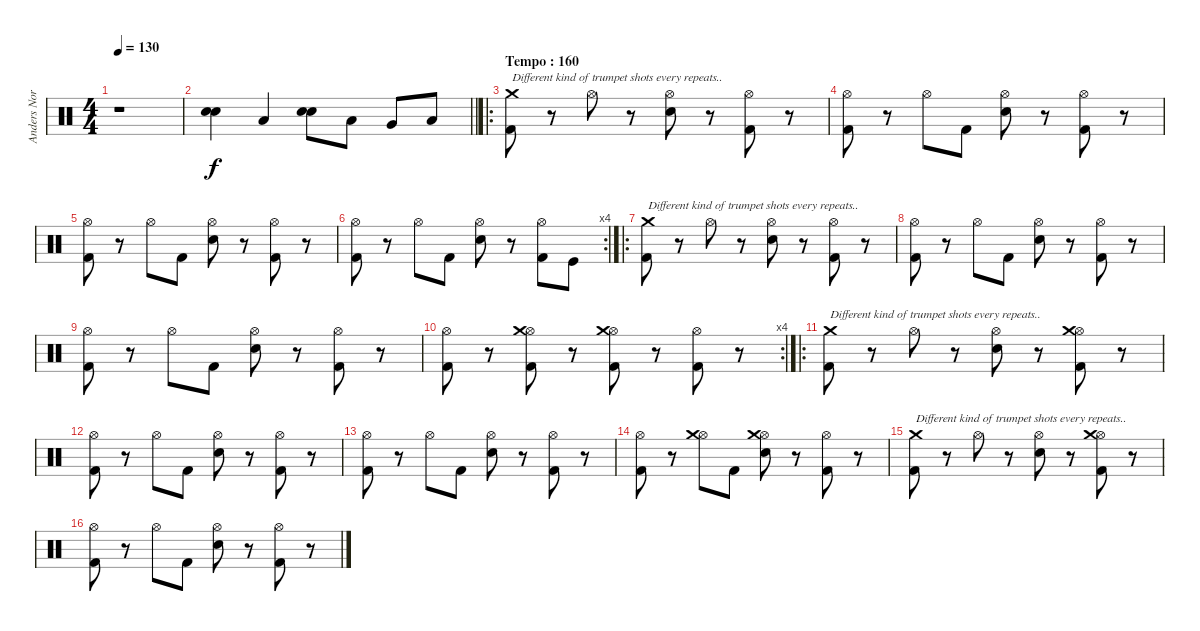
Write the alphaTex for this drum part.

\track ("Anders Nordin" "Anders Nor") {instrument percussion}
\staff {score}
\articulation defaults
\ts (4 4)
\tempo 130
\clef neutral
\ks c
r.1{dy f} |
\barLineRight lightlight
("Snare (hit) 2" "Electric Snare (hit)").4{bd 240} "Low Floor Tom (hit)".4 ("Snare (hit) 2" "Electric Snare (hit)").8{bd 480} "Low Tom (hit)".8 "Very Low Tom (hit)".8 "Low Floor Tom (hit)".8 |
\ro
\section ("" "Tempo : 160")
("Crash medium (hit)" "Kick (hit) 2").8{txt "Different kind of trumpet shots every repeats.."} r.8 "Hi-Hat (open)".8 r.8 ("Hi-Hat (open)" "Snare (hit) 2").8 r.8 ("Hi-Hat (open)" "Kick (hit) 2").8 r.8 |
("Hi-Hat (open)" "Kick (hit) 2").8 r.8 "Hi-Hat (open)".8 "Kick (hit) 2".8 ("Hi-Hat (open)" "Snare (hit) 2").8 r.8 ("Hi-Hat (open)" "Kick (hit) 2").8 r.8 |
("Hi-Hat (open)" "Kick (hit) 2").8 r.8 "Hi-Hat (open)".8 "Kick (hit) 2".8 ("Hi-Hat (open)" "Snare (hit) 2").8 r.8 ("Hi-Hat (open)" "Kick (hit) 2").8 r.8 |
\rc 4
("Hi-Hat (open)" "Kick (hit) 2").8 r.8 "Hi-Hat (open)".8 "Kick (hit) 2".8 ("Hi-Hat (open)" "Snare (hit) 2").8 r.8 ("Hi-Hat (open)" "Kick (hit) 2").8 "Kick (hit)".8 |
\ro
("Crash medium (hit)" "Kick (hit) 2").8{txt "Different kind of trumpet shots every repeats.."} r.8 "Hi-Hat (open)".8 r.8 ("Hi-Hat (open)" "Snare (hit) 2").8 r.8 ("Hi-Hat (open)" "Kick (hit) 2").8 r.8 |
("Hi-Hat (open)" "Kick (hit) 2").8 r.8 "Hi-Hat (open)".8 "Kick (hit) 2".8 ("Hi-Hat (open)" "Snare (hit) 2").8 r.8 ("Hi-Hat (open)" "Kick (hit) 2").8 r.8 |
("Hi-Hat (open)" "Kick (hit) 2").8 r.8 "Hi-Hat (open)".8 "Kick (hit) 2".8 ("Hi-Hat (open)" "Snare (hit) 2").8 r.8 ("Hi-Hat (open)" "Kick (hit) 2").8 r.8 |
\rc 4
("Hi-Hat (open)" "Kick (hit) 2").8 r.8 ("Hi-Hat (open)" "Crash medium (hit)" "Kick (hit) 2").8 r.8 ("Hi-Hat (open)" "Crash medium (hit)" "Kick (hit) 2").8 r.8 ("Hi-Hat (open)" "Kick (hit) 2").8 r.8 |
\ro
("Crash medium (hit)" "Kick (hit) 2").8{txt "Different kind of trumpet shots every repeats.."} r.8 "Hi-Hat (open)".8 r.8 ("Hi-Hat (open)" "Snare (hit) 2").8 r.8 ("Hi-Hat (open)" "Crash medium (hit)" "Kick (hit) 2").8 r.8 |
("Hi-Hat (open)" "Kick (hit) 2").8 r.8 "Hi-Hat (open)".8 "Kick (hit) 2".8 ("Hi-Hat (open)" "Snare (hit) 2").8 r.8 ("Hi-Hat (open)" "Kick (hit) 2").8 r.8 |
("Hi-Hat (open)" "Kick (hit) 2").8 r.8 "Hi-Hat (open)".8 "Kick (hit) 2".8 ("Hi-Hat (open)" "Snare (hit) 2").8 r.8 ("Hi-Hat (open)" "Kick (hit) 2").8 r.8 |
("Hi-Hat (open)" "Kick (hit) 2").8 r.8 ("Hi-Hat (open)" "Crash medium (hit)").8 "Kick (hit) 2".8 ("Hi-Hat (open)" "Crash medium (hit)" "Snare (hit) 2").8 r.8 ("Hi-Hat (open)" "Kick (hit) 2").8 r.8 |
("Crash medium (hit)" "Kick (hit) 2").8{txt "Different kind of trumpet shots every repeats.."} r.8 "Hi-Hat (open)".8 r.8 ("Hi-Hat (open)" "Snare (hit) 2").8 r.8 ("Hi-Hat (open)" "Crash medium (hit)" "Kick (hit) 2").8 r.8 |
("Hi-Hat (open)" "Kick (hit) 2").8 r.8 "Hi-Hat (open)".8 "Kick (hit) 2".8 ("Hi-Hat (open)" "Snare (hit) 2").8 r.8 ("Hi-Hat (open)" "Kick (hit) 2").8 r.8
